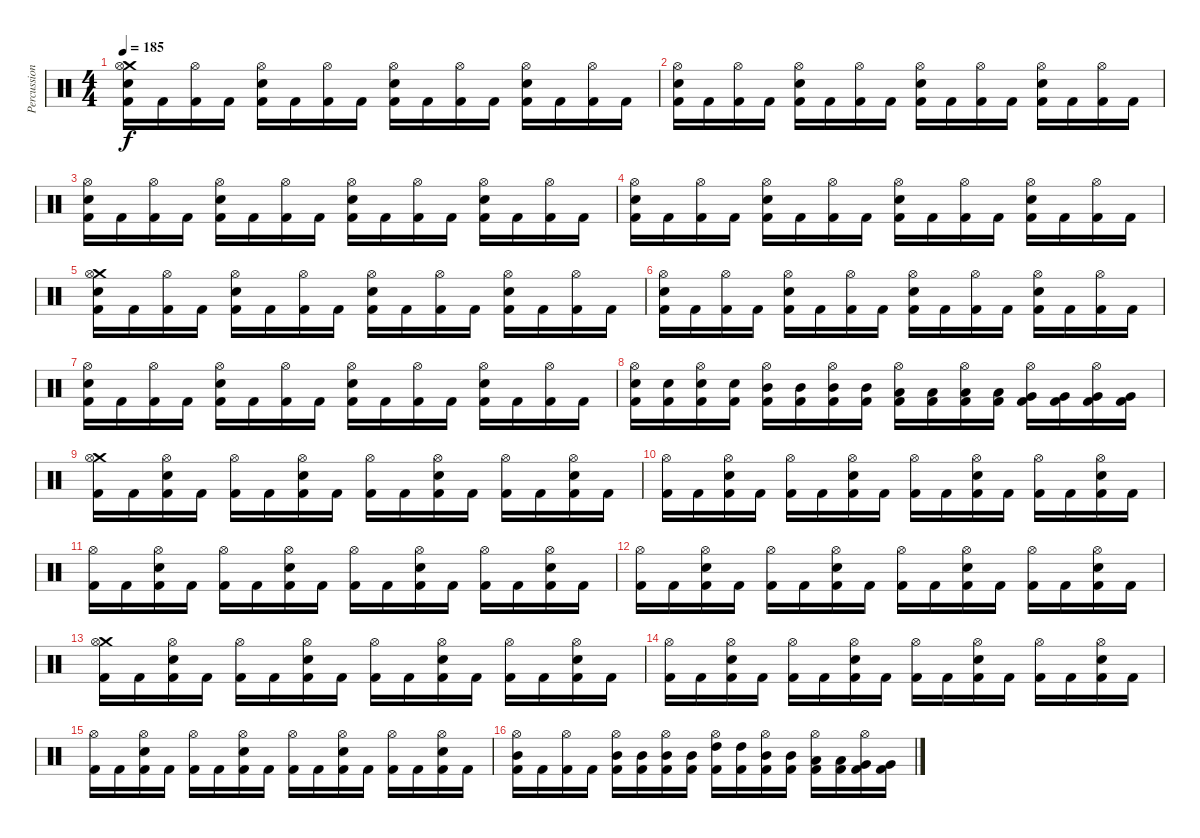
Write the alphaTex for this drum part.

\track ("Percussion" "Percussion") {instrument percussion}
\staff {score}
\articulation defaults
\ts (4 4)
\tempo 185
\clef neutral
\ks c
("Crash medium (hit)" "Hi-Hat (open)" "Electric Snare (hit)" "Kick (hit) 2").16{dy f} "Kick (hit) 2".16 ("Hi-Hat (open)" "Kick (hit) 2").16 "Kick (hit) 2".16 ("Hi-Hat (open)" "Electric Snare (hit)" "Kick (hit) 2").16 "Kick (hit) 2".16 ("Hi-Hat (open)" "Kick (hit) 2").16 "Kick (hit) 2".16 ("Hi-Hat (open)" "Electric Snare (hit)" "Kick (hit) 2").16 "Kick (hit) 2".16 ("Hi-Hat (open)" "Kick (hit) 2").16 "Kick (hit) 2".16 ("Hi-Hat (open)" "Electric Snare (hit)" "Kick (hit) 2").16 "Kick (hit) 2".16 ("Hi-Hat (open)" "Kick (hit) 2").16 "Kick (hit) 2".16 |
("Hi-Hat (open)" "Electric Snare (hit)" "Kick (hit) 2").16 "Kick (hit) 2".16 ("Hi-Hat (open)" "Kick (hit) 2").16 "Kick (hit) 2".16 ("Hi-Hat (open)" "Electric Snare (hit)" "Kick (hit) 2").16 "Kick (hit) 2".16 ("Hi-Hat (open)" "Kick (hit) 2").16 "Kick (hit) 2".16 ("Hi-Hat (open)" "Electric Snare (hit)" "Kick (hit) 2").16 "Kick (hit) 2".16 ("Hi-Hat (open)" "Kick (hit) 2").16 "Kick (hit) 2".16 ("Hi-Hat (open)" "Electric Snare (hit)" "Kick (hit) 2").16 "Kick (hit) 2".16 ("Hi-Hat (open)" "Kick (hit) 2").16 "Kick (hit) 2".16 |
("Hi-Hat (open)" "Electric Snare (hit)" "Kick (hit) 2").16 "Kick (hit) 2".16 ("Hi-Hat (open)" "Kick (hit) 2").16 "Kick (hit) 2".16 ("Hi-Hat (open)" "Electric Snare (hit)" "Kick (hit) 2").16 "Kick (hit) 2".16 ("Hi-Hat (open)" "Kick (hit) 2").16 "Kick (hit) 2".16 ("Hi-Hat (open)" "Electric Snare (hit)" "Kick (hit) 2").16 "Kick (hit) 2".16 ("Hi-Hat (open)" "Kick (hit) 2").16 "Kick (hit) 2".16 ("Hi-Hat (open)" "Electric Snare (hit)" "Kick (hit) 2").16 "Kick (hit) 2".16 ("Hi-Hat (open)" "Kick (hit) 2").16 "Kick (hit) 2".16 |
("Hi-Hat (open)" "Electric Snare (hit)" "Kick (hit) 2").16 "Kick (hit) 2".16 ("Hi-Hat (open)" "Kick (hit) 2").16 "Kick (hit) 2".16 ("Hi-Hat (open)" "Electric Snare (hit)" "Kick (hit) 2").16 "Kick (hit) 2".16 ("Hi-Hat (open)" "Kick (hit) 2").16 "Kick (hit) 2".16 ("Hi-Hat (open)" "Electric Snare (hit)" "Kick (hit) 2").16 "Kick (hit) 2".16 ("Hi-Hat (open)" "Kick (hit) 2").16 "Kick (hit) 2".16 ("Hi-Hat (open)" "Electric Snare (hit)" "Kick (hit) 2").16 "Kick (hit) 2".16 ("Hi-Hat (open)" "Kick (hit) 2").16 "Kick (hit) 2".16 |
("Crash medium (hit)" "Hi-Hat (open)" "Electric Snare (hit)" "Kick (hit) 2").16 "Kick (hit) 2".16 ("Hi-Hat (open)" "Kick (hit) 2").16 "Kick (hit) 2".16 ("Hi-Hat (open)" "Electric Snare (hit)" "Kick (hit) 2").16 "Kick (hit) 2".16 ("Hi-Hat (open)" "Kick (hit) 2").16 "Kick (hit) 2".16 ("Hi-Hat (open)" "Electric Snare (hit)" "Kick (hit) 2").16 "Kick (hit) 2".16 ("Hi-Hat (open)" "Kick (hit) 2").16 "Kick (hit) 2".16 ("Hi-Hat (open)" "Electric Snare (hit)" "Kick (hit) 2").16 "Kick (hit) 2".16 ("Hi-Hat (open)" "Kick (hit) 2").16 "Kick (hit) 2".16 |
("Hi-Hat (open)" "Electric Snare (hit)" "Kick (hit) 2").16 "Kick (hit) 2".16 ("Hi-Hat (open)" "Kick (hit) 2").16 "Kick (hit) 2".16 ("Hi-Hat (open)" "Electric Snare (hit)" "Kick (hit) 2").16 "Kick (hit) 2".16 ("Hi-Hat (open)" "Kick (hit) 2").16 "Kick (hit) 2".16 ("Hi-Hat (open)" "Electric Snare (hit)" "Kick (hit) 2").16 "Kick (hit) 2".16 ("Hi-Hat (open)" "Kick (hit) 2").16 "Kick (hit) 2".16 ("Hi-Hat (open)" "Electric Snare (hit)" "Kick (hit) 2").16 "Kick (hit) 2".16 ("Hi-Hat (open)" "Kick (hit) 2").16 "Kick (hit) 2".16 |
("Hi-Hat (open)" "Electric Snare (hit)" "Kick (hit) 2").16 "Kick (hit) 2".16 ("Hi-Hat (open)" "Kick (hit) 2").16 "Kick (hit) 2".16 ("Hi-Hat (open)" "Electric Snare (hit)" "Kick (hit) 2").16 "Kick (hit) 2".16 ("Hi-Hat (open)" "Kick (hit) 2").16 "Kick (hit) 2".16 ("Hi-Hat (open)" "Electric Snare (hit)" "Kick (hit) 2").16 "Kick (hit) 2".16 ("Hi-Hat (open)" "Kick (hit) 2").16 "Kick (hit) 2".16 ("Hi-Hat (open)" "Electric Snare (hit)" "Kick (hit) 2").16 "Kick (hit) 2".16 ("Hi-Hat (open)" "Kick (hit) 2").16 "Kick (hit) 2".16 |
("Hi-Hat (open)" "Electric Snare (hit)" "Kick (hit) 2").16 ("Electric Snare (hit)" "Kick (hit) 2").16 ("Hi-Hat (open)" "Electric Snare (hit)" "Kick (hit) 2").16 ("Electric Snare (hit)" "Kick (hit) 2").16 ("Hi-Hat (open)" "Mid Tom (hit)" "Kick (hit) 2").16 ("Mid Tom (hit)" "Kick (hit) 2").16 ("Hi-Hat (open)" "Mid Tom (hit)" "Kick (hit) 2").16 ("Mid Tom (hit)" "Kick (hit) 2").16 ("Hi-Hat (open)" "Low Tom (hit)" "Kick (hit) 2").16 ("Low Tom (hit)" "Kick (hit) 2").16 ("Hi-Hat (open)" "Low Tom (hit)" "Kick (hit) 2").16 ("Low Tom (hit)" "Kick (hit) 2").16 ("Hi-Hat (open)" "Very Low Tom (hit)" "Kick (hit) 2").16 ("Very Low Tom (hit)" "Kick (hit) 2").16 ("Hi-Hat (open)" "Very Low Tom (hit)" "Kick (hit) 2").16 ("Very Low Tom (hit)" "Kick (hit) 2").16 |
("Crash medium (hit)" "Hi-Hat (open)" "Kick (hit) 2").16 "Kick (hit) 2".16 ("Hi-Hat (open)" "Electric Snare (hit)" "Kick (hit) 2").16 "Kick (hit) 2".16 ("Hi-Hat (open)" "Kick (hit) 2").16 "Kick (hit) 2".16 ("Hi-Hat (open)" "Electric Snare (hit)" "Kick (hit) 2").16 "Kick (hit) 2".16 ("Hi-Hat (open)" "Kick (hit) 2").16 "Kick (hit) 2".16 ("Hi-Hat (open)" "Electric Snare (hit)" "Kick (hit) 2").16 "Kick (hit) 2".16 ("Hi-Hat (open)" "Kick (hit) 2").16 "Kick (hit) 2".16 ("Hi-Hat (open)" "Electric Snare (hit)" "Kick (hit) 2").16 "Kick (hit) 2".16 |
("Hi-Hat (open)" "Kick (hit) 2").16 "Kick (hit) 2".16 ("Hi-Hat (open)" "Electric Snare (hit)" "Kick (hit) 2").16 "Kick (hit) 2".16 ("Hi-Hat (open)" "Kick (hit) 2").16 "Kick (hit) 2".16 ("Hi-Hat (open)" "Electric Snare (hit)" "Kick (hit) 2").16 "Kick (hit) 2".16 ("Hi-Hat (open)" "Kick (hit) 2").16 "Kick (hit) 2".16 ("Hi-Hat (open)" "Electric Snare (hit)" "Kick (hit) 2").16 "Kick (hit) 2".16 ("Hi-Hat (open)" "Kick (hit) 2").16 "Kick (hit) 2".16 ("Hi-Hat (open)" "Electric Snare (hit)" "Kick (hit) 2").16 "Kick (hit) 2".16 |
("Hi-Hat (open)" "Kick (hit) 2").16 "Kick (hit) 2".16 ("Hi-Hat (open)" "Electric Snare (hit)" "Kick (hit) 2").16 "Kick (hit) 2".16 ("Hi-Hat (open)" "Kick (hit) 2").16 "Kick (hit) 2".16 ("Hi-Hat (open)" "Electric Snare (hit)" "Kick (hit) 2").16 "Kick (hit) 2".16 ("Hi-Hat (open)" "Kick (hit) 2").16 "Kick (hit) 2".16 ("Hi-Hat (open)" "Electric Snare (hit)" "Kick (hit) 2").16 "Kick (hit) 2".16 ("Hi-Hat (open)" "Kick (hit) 2").16 "Kick (hit) 2".16 ("Hi-Hat (open)" "Electric Snare (hit)" "Kick (hit) 2").16 "Kick (hit) 2".16 |
("Hi-Hat (open)" "Kick (hit) 2").16 "Kick (hit) 2".16 ("Hi-Hat (open)" "Electric Snare (hit)" "Kick (hit) 2").16 "Kick (hit) 2".16 ("Hi-Hat (open)" "Kick (hit) 2").16 "Kick (hit) 2".16 ("Hi-Hat (open)" "Electric Snare (hit)" "Kick (hit) 2").16 "Kick (hit) 2".16 ("Hi-Hat (open)" "Kick (hit) 2").16 "Kick (hit) 2".16 ("Hi-Hat (open)" "Electric Snare (hit)" "Kick (hit) 2").16 "Kick (hit) 2".16 ("Hi-Hat (open)" "Kick (hit) 2").16 "Kick (hit) 2".16 ("Hi-Hat (open)" "Electric Snare (hit)" "Kick (hit) 2").16 "Kick (hit) 2".16 |
("Crash medium (hit)" "Hi-Hat (open)" "Kick (hit) 2").16 "Kick (hit) 2".16 ("Hi-Hat (open)" "Electric Snare (hit)" "Kick (hit) 2").16 "Kick (hit) 2".16 ("Hi-Hat (open)" "Kick (hit) 2").16 "Kick (hit) 2".16 ("Hi-Hat (open)" "Electric Snare (hit)" "Kick (hit) 2").16 "Kick (hit) 2".16 ("Hi-Hat (open)" "Kick (hit) 2").16 "Kick (hit) 2".16 ("Hi-Hat (open)" "Electric Snare (hit)" "Kick (hit) 2").16 "Kick (hit) 2".16 ("Hi-Hat (open)" "Kick (hit) 2").16 "Kick (hit) 2".16 ("Hi-Hat (open)" "Electric Snare (hit)" "Kick (hit) 2").16 "Kick (hit) 2".16 |
("Hi-Hat (open)" "Kick (hit) 2").16 "Kick (hit) 2".16 ("Hi-Hat (open)" "Electric Snare (hit)" "Kick (hit) 2").16 "Kick (hit) 2".16 ("Hi-Hat (open)" "Kick (hit) 2").16 "Kick (hit) 2".16 ("Hi-Hat (open)" "Electric Snare (hit)" "Kick (hit) 2").16 "Kick (hit) 2".16 ("Hi-Hat (open)" "Kick (hit) 2").16 "Kick (hit) 2".16 ("Hi-Hat (open)" "Electric Snare (hit)" "Kick (hit) 2").16 "Kick (hit) 2".16 ("Hi-Hat (open)" "Kick (hit) 2").16 "Kick (hit) 2".16 ("Hi-Hat (open)" "Electric Snare (hit)" "Kick (hit) 2").16 "Kick (hit) 2".16 |
("Hi-Hat (open)" "Kick (hit) 2").16 "Kick (hit) 2".16 ("Hi-Hat (open)" "Electric Snare (hit)" "Kick (hit) 2").16 "Kick (hit) 2".16 ("Hi-Hat (open)" "Kick (hit) 2").16 "Kick (hit) 2".16 ("Hi-Hat (open)" "Electric Snare (hit)" "Kick (hit) 2").16 "Kick (hit) 2".16 ("Hi-Hat (open)" "Kick (hit) 2").16 "Kick (hit) 2".16 ("Hi-Hat (open)" "Electric Snare (hit)" "Kick (hit) 2").16 "Kick (hit) 2".16 ("Hi-Hat (open)" "Kick (hit) 2").16 "Kick (hit) 2".16 ("Hi-Hat (open)" "Electric Snare (hit)" "Kick (hit) 2").16 "Kick (hit) 2".16 |
("Hi-Hat (open)" "Mid Tom (hit)" "Kick (hit) 2").16 "Kick (hit) 2".16 ("Hi-Hat (open)" "Kick (hit) 2").16 "Kick (hit) 2".16 ("Hi-Hat (open)" "Mid Tom (hit)" "Kick (hit) 2").16 ("Mid Tom (hit)" "Kick (hit) 2").16 ("Hi-Hat (open)" "Mid Tom (hit)" "Kick (hit) 2").16 ("Mid Tom (hit)" "Kick (hit) 2").16 ("Hi-Hat (open)" "High Tom (hit)" "Kick (hit) 2").16 ("High Tom (hit)" "Kick (hit) 2").16 ("Hi-Hat (open)" "Mid Tom (hit)" "Kick (hit) 2").16 ("Mid Tom (hit)" "Kick (hit) 2").16 ("Hi-Hat (open)" "Low Tom (hit)" "Kick (hit) 2").16 ("Low Tom (hit)" "Kick (hit) 2").16 ("Hi-Hat (open)" "Very Low Tom (hit)" "Kick (hit) 2").16 ("Very Low Tom (hit)" "Kick (hit) 2").16
